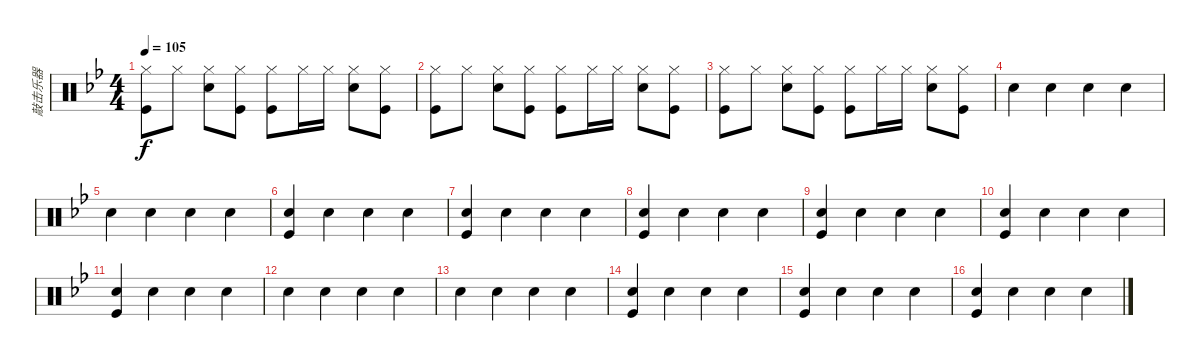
\track ("敲击乐器" "敲击乐器") {instrument percussion}
\staff {score}
\articulation defaults
\ts (4 4)
\tempo 105
\clef neutral
\ks bb
("Hi-Hat (closed)" "Kick (hit)").8{dy f} "Hi-Hat (closed)".8 ("Hi-Hat (closed)" "Snare (hit) 2").8 ("Hi-Hat (closed)" "Kick (hit)").8 ("Hi-Hat (closed)" "Kick (hit)").8 "Hi-Hat (closed)".16 "Hi-Hat (closed)".16 ("Hi-Hat (closed)" "Snare (hit) 2").8 ("Hi-Hat (closed)" "Kick (hit)").8 |
("Hi-Hat (closed)" "Kick (hit)").8 "Hi-Hat (closed)".8 ("Hi-Hat (closed)" "Snare (hit) 2").8 ("Hi-Hat (closed)" "Kick (hit)").8 ("Hi-Hat (closed)" "Kick (hit)").8 "Hi-Hat (closed)".16 "Hi-Hat (closed)".16 ("Hi-Hat (closed)" "Snare (hit) 2").8 ("Hi-Hat (closed)" "Kick (hit)").8 |
("Hi-Hat (closed)" "Kick (hit)").8 "Hi-Hat (closed)".8 ("Hi-Hat (closed)" "Snare (hit) 2").8 ("Hi-Hat (closed)" "Kick (hit)").8 ("Hi-Hat (closed)" "Kick (hit)").8 "Hi-Hat (closed)".16 "Hi-Hat (closed)".16 ("Hi-Hat (closed)" "Snare (hit) 2").8 ("Hi-Hat (closed)" "Kick (hit)").8 |
"Snare (hit) 2".4 "Snare (hit) 2".4 "Snare (hit) 2".4 "Snare (hit) 2".4 |
"Snare (hit) 2".4 "Snare (hit) 2".4 "Snare (hit) 2".4 "Snare (hit) 2".4 |
("Snare (hit) 2" "Kick (hit)").4 "Snare (hit) 2".4 "Snare (hit) 2".4 "Snare (hit) 2".4 |
("Snare (hit) 2" "Kick (hit)").4 "Snare (hit) 2".4 "Snare (hit) 2".4 "Snare (hit) 2".4 |
("Snare (hit) 2" "Kick (hit)").4 "Snare (hit) 2".4 "Snare (hit) 2".4 "Snare (hit) 2".4 |
("Snare (hit) 2" "Kick (hit)").4 "Snare (hit) 2".4 "Snare (hit) 2".4 "Snare (hit) 2".4 |
("Snare (hit) 2" "Kick (hit)").4 "Snare (hit) 2".4 "Snare (hit) 2".4 "Snare (hit) 2".4 |
("Snare (hit) 2" "Kick (hit)").4 "Snare (hit) 2".4 "Snare (hit) 2".4 "Snare (hit) 2".4 |
"Snare (hit) 2".4 "Snare (hit) 2".4 "Snare (hit) 2".4 "Snare (hit) 2".4 |
"Snare (hit) 2".4 "Snare (hit) 2".4 "Snare (hit) 2".4 "Snare (hit) 2".4 |
("Snare (hit) 2" "Kick (hit)").4 "Snare (hit) 2".4 "Snare (hit) 2".4 "Snare (hit) 2".4 |
("Snare (hit) 2" "Kick (hit)").4 "Snare (hit) 2".4 "Snare (hit) 2".4 "Snare (hit) 2".4 |
("Snare (hit) 2" "Kick (hit)").4 "Snare (hit) 2".4 "Snare (hit) 2".4 "Snare (hit) 2".4
